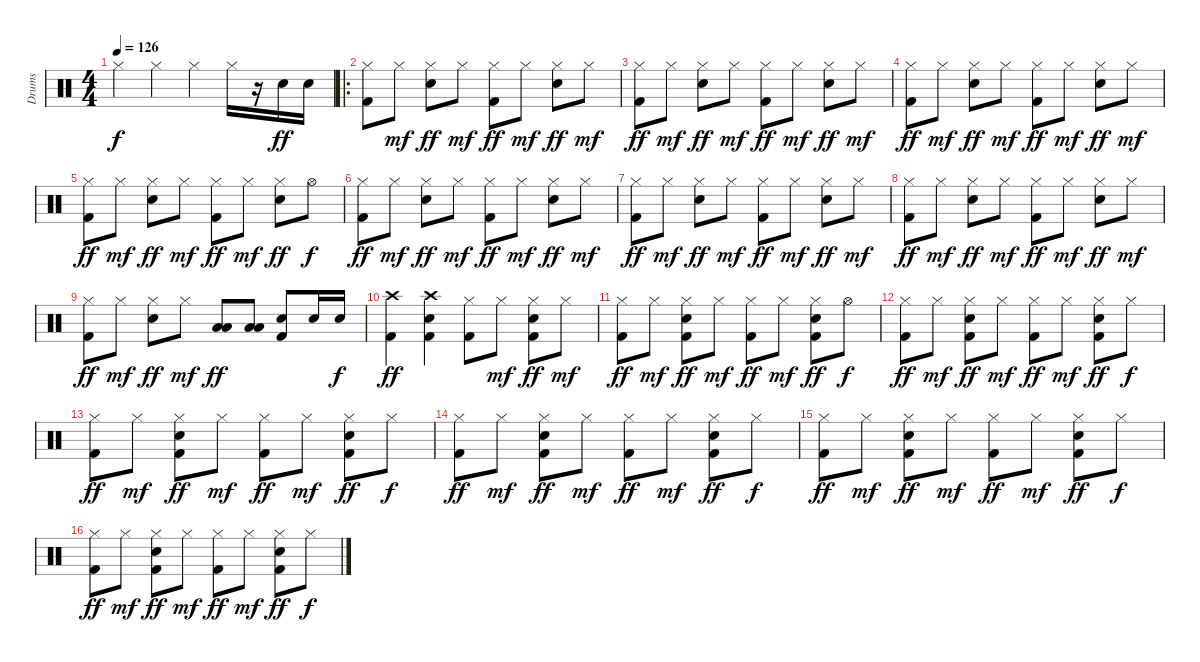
\track ("Drums" "Drums") {instrument percussion}
\staff {score}
\articulation defaults
\ts (4 4)
\tempo 126
\clef neutral
\ks c "Hi-Hat (closed)".4{dy f} "Hi-Hat (closed)".4 "Hi-Hat (closed)".4 "Hi-Hat (closed)".16
r.16 "Snare (hit) 2".16{dy ff} "Snare (hit) 2".16 |
\ro
("Hi-Hat (closed)" "Kick (hit) 2").8 "Hi-Hat (closed)".8{dy mf} ("Hi-Hat (closed)" "Snare (hit) 2").8{dy ff} "Hi-Hat (closed)".8{dy mf} ("Hi-Hat (closed)" "Kick (hit) 2").8{dy ff} "Hi-Hat (closed)".8{dy mf} ("Hi-Hat (closed)" "Snare (hit) 2").8{dy ff} "Hi-Hat (closed)".8{dy mf} |
("Hi-Hat (closed)" "Kick (hit) 2").8{dy ff} "Hi-Hat (closed)".8{dy mf} ("Hi-Hat (closed)" "Snare (hit) 2").8{dy ff} "Hi-Hat (closed)".8{dy mf} ("Hi-Hat (closed)" "Kick (hit) 2").8{dy ff} "Hi-Hat (closed)".8{dy mf} ("Hi-Hat (closed)" "Snare (hit) 2").8{dy ff} "Hi-Hat (closed)".8{dy mf} |
("Hi-Hat (closed)" "Kick (hit) 2").8{dy ff} "Hi-Hat (closed)".8{dy mf} ("Hi-Hat (closed)" "Snare (hit) 2").8{dy ff} "Hi-Hat (closed)".8{dy mf} ("Hi-Hat (closed)" "Kick (hit) 2").8{dy ff} "Hi-Hat (closed)".8{dy mf} ("Hi-Hat (closed)" "Snare (hit) 2").8{dy ff} "Hi-Hat (closed)".8{dy mf} |
("Hi-Hat (closed)" "Kick (hit) 2").8{dy ff} "Hi-Hat (closed)".8{dy mf} ("Hi-Hat (closed)" "Snare (hit) 2").8{dy ff} "Hi-Hat (closed)".8{dy mf} ("Hi-Hat (closed)" "Kick (hit) 2").8{dy ff} "Hi-Hat (closed)".8{dy mf} ("Hi-Hat (closed)" "Snare (hit) 2").8{dy ff} "Hi-Hat (open)".8{dy f} |
("Hi-Hat (closed)" "Kick (hit) 2").8{dy ff} "Hi-Hat (closed)".8{dy mf} ("Hi-Hat (closed)" "Snare (hit) 2").8{dy ff} "Hi-Hat (closed)".8{dy mf} ("Hi-Hat (closed)" "Kick (hit) 2").8{dy ff} "Hi-Hat (closed)".8{dy mf} ("Hi-Hat (closed)" "Snare (hit) 2").8{dy ff} "Hi-Hat (closed)".8{dy mf} |
("Hi-Hat (closed)" "Kick (hit) 2").8{dy ff} "Hi-Hat (closed)".8{dy mf} ("Hi-Hat (closed)" "Snare (hit) 2").8{dy ff} "Hi-Hat (closed)".8{dy mf} ("Hi-Hat (closed)" "Kick (hit) 2").8{dy ff} "Hi-Hat (closed)".8{dy mf} ("Hi-Hat (closed)" "Snare (hit) 2").8{dy ff} "Hi-Hat (closed)".8{dy mf} |
("Hi-Hat (closed)" "Kick (hit) 2").8{dy ff} "Hi-Hat (closed)".8{dy mf} ("Hi-Hat (closed)" "Snare (hit) 2").8{dy ff} "Hi-Hat (closed)".8{dy mf} ("Hi-Hat (closed)" "Kick (hit) 2").8{dy ff} "Hi-Hat (closed)".8{dy mf} ("Hi-Hat (closed)" "Snare (hit) 2").8{dy ff} "Hi-Hat (closed)".8{dy mf} |
("Hi-Hat (closed)" "Kick (hit) 2").8{dy ff} "Hi-Hat (closed)".8{dy mf} ("Hi-Hat (closed)" "Snare (hit) 2").8{dy ff} "Hi-Hat (closed)".8{dy mf} ("Low Tom (hit)" "Low Floor Tom (hit)").8{dy ff} ("Low Tom (hit)" "Low Floor Tom (hit)").8 ("Snare (hit) 2" "Kick (hit) 2").8 "Snare (hit) 2".16 "Snare (hit) 2".16{dy f} |
("Crash high (hit)" "Kick (hit) 2").4{dy ff} ("Crash high (hit)" "Snare (hit) 2" "Kick (hit) 2").4 ("Hi-Hat (closed)" "Kick (hit) 2").8 "Hi-Hat (closed)".8{dy mf} ("Hi-Hat (closed)" "Snare (hit) 2" "Kick (hit) 2").8{dy ff} "Hi-Hat (closed)".8{dy mf} |
("Hi-Hat (closed)" "Kick (hit) 2").8{dy ff} "Hi-Hat (closed)".8{dy mf} ("Hi-Hat (closed)" "Snare (hit) 2" "Kick (hit) 2").8{dy ff} "Hi-Hat (closed)".8{dy mf} ("Hi-Hat (closed)" "Kick (hit) 2").8{dy ff} "Hi-Hat (closed)".8{dy mf} ("Hi-Hat (closed)" "Snare (hit) 2" "Kick (hit) 2").8{dy ff} "Hi-Hat (open)".8{dy f} |
("Hi-Hat (closed)" "Kick (hit) 2").8{dy ff} "Hi-Hat (closed)".8{dy mf} ("Hi-Hat (closed)" "Snare (hit) 2" "Kick (hit) 2").8{dy ff} "Hi-Hat (closed)".8{dy mf} ("Hi-Hat (closed)" "Kick (hit) 2").8{dy ff} "Hi-Hat (closed)".8{dy mf} ("Hi-Hat (closed)" "Snare (hit) 2" "Kick (hit) 2").8{dy ff} "Hi-Hat (closed)".8{dy f} |
("Hi-Hat (closed)" "Kick (hit) 2").8{dy ff} "Hi-Hat (closed)".8{dy mf} ("Hi-Hat (closed)" "Snare (hit) 2" "Kick (hit) 2").8{dy ff} "Hi-Hat (closed)".8{dy mf} ("Hi-Hat (closed)" "Kick (hit) 2").8{dy ff} "Hi-Hat (closed)".8{dy mf} ("Hi-Hat (closed)" "Snare (hit) 2" "Kick (hit) 2").8{dy ff} "Hi-Hat (closed)".8{dy f} |
("Hi-Hat (closed)" "Kick (hit) 2").8{dy ff} "Hi-Hat (closed)".8{dy mf} ("Hi-Hat (closed)" "Snare (hit) 2" "Kick (hit) 2").8{dy ff} "Hi-Hat (closed)".8{dy mf} ("Hi-Hat (closed)" "Kick (hit) 2").8{dy ff} "Hi-Hat (closed)".8{dy mf} ("Hi-Hat (closed)" "Snare (hit) 2" "Kick (hit) 2").8{dy ff} "Hi-Hat (closed)".8{dy f} |
("Hi-Hat (closed)" "Kick (hit) 2").8{dy ff} "Hi-Hat (closed)".8{dy mf} ("Hi-Hat (closed)" "Snare (hit) 2" "Kick (hit) 2").8{dy ff} "Hi-Hat (closed)".8{dy mf} ("Hi-Hat (closed)" "Kick (hit) 2").8{dy ff} "Hi-Hat (closed)".8{dy mf} ("Hi-Hat (closed)" "Snare (hit) 2" "Kick (hit) 2").8{dy ff} "Hi-Hat (closed)".8{dy f} |
("Hi-Hat (closed)" "Kick (hit) 2").8{dy ff} "Hi-Hat (closed)".8{dy mf} ("Hi-Hat (closed)" "Snare (hit) 2" "Kick (hit) 2").8{dy ff} "Hi-Hat (closed)".8{dy mf} ("Hi-Hat (closed)" "Kick (hit) 2").8{dy ff} "Hi-Hat (closed)".8{dy mf} ("Hi-Hat (closed)" "Snare (hit) 2" "Kick (hit) 2").8{dy ff} "Hi-Hat (closed)".8{dy f}
